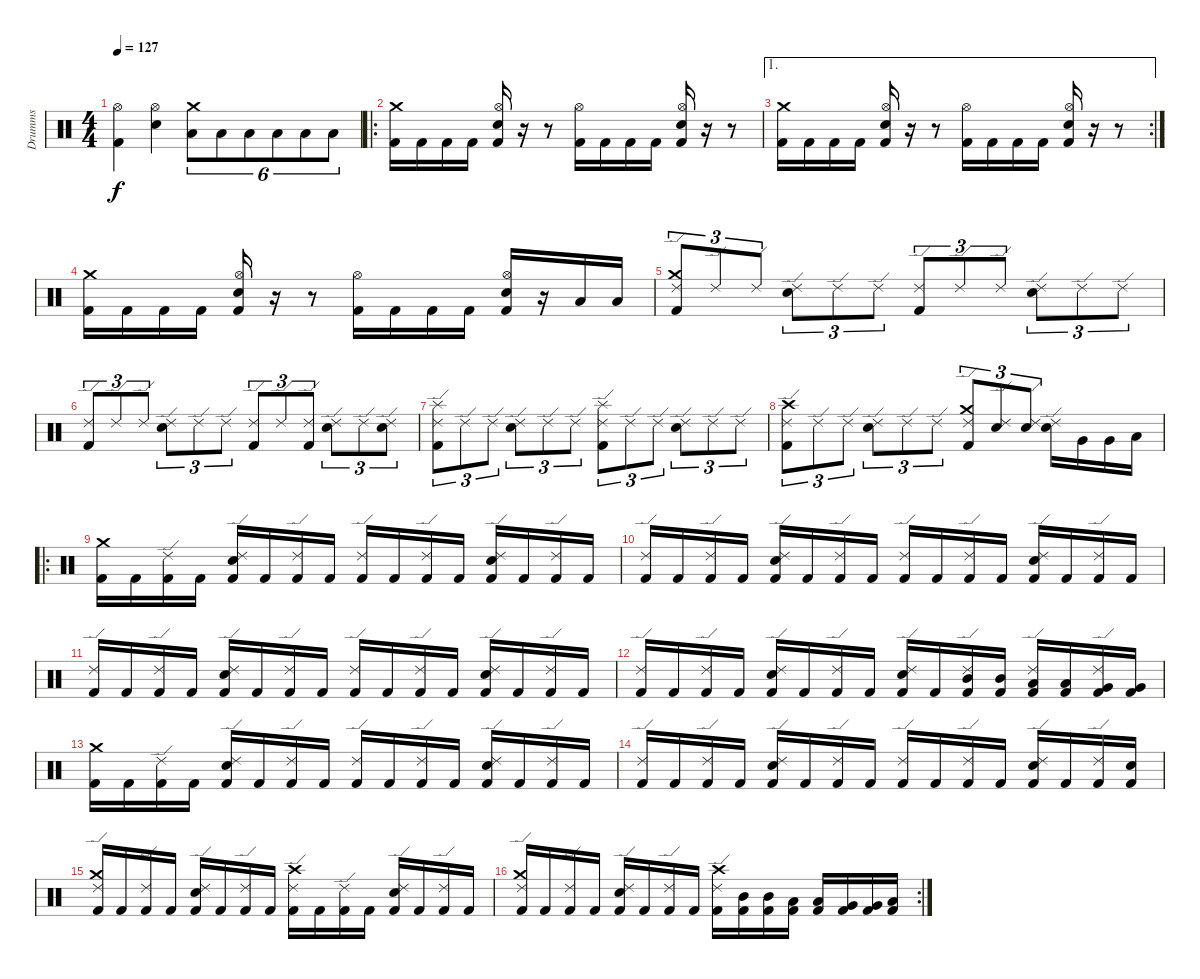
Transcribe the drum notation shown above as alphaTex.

\track ("Drumms" "Drumms") {instrument percussion}
\staff {score}
\articulation defaults
\ts (4 4)
\tempo 127
\clef neutral
\ks c
("Kick (hit) 2" "Hi-Hat (open)").4{dy f} ("Snare (hit) 2" "Hi-Hat (open)").4 ("Low Tom (hit)" "Crash medium (hit)").8{tu (6 4)} "Low Tom (hit)".8{tu (6 4)} "Low Tom (hit)".8{tu (6 4)} "Low Tom (hit)".8{tu (6 4)} "Low Tom (hit)".8{tu (6 4)} "Low Tom (hit)".8{tu (6 4)} |
\ro
("Kick (hit) 2" "Crash medium (hit)").16 "Kick (hit) 2".16 "Kick (hit) 2".16 "Kick (hit) 2".16 ("Kick (hit) 2" "Snare (hit) 2" "Hi-Hat (open)").16 r.16 r.8 ("Kick (hit) 2" "Hi-Hat (open)").16 "Kick (hit) 2".16 "Kick (hit) 2".16 "Kick (hit) 2".16 ("Kick (hit) 2" "Snare (hit) 2" "Hi-Hat (open)").16 r.16 r.8 |
\ae 1
\rc 2
("Kick (hit) 2" "Crash medium (hit)").16 "Kick (hit) 2".16 "Kick (hit) 2".16 "Kick (hit) 2".16 ("Kick (hit) 2" "Snare (hit) 2" "Hi-Hat (open)").16 r.16 r.8 ("Kick (hit) 2" "Hi-Hat (open)").16 "Kick (hit) 2".16 "Kick (hit) 2".16 "Kick (hit) 2".16 ("Kick (hit) 2" "Snare (hit) 2" "Hi-Hat (open)").16 r.16 r.8 |
("Kick (hit) 2" "Crash medium (hit)").16 "Kick (hit) 2".16 "Kick (hit) 2".16 "Kick (hit) 2".16 ("Kick (hit) 2" "Snare (hit) 2" "Hi-Hat (open)").16 r.16 r.8 ("Kick (hit) 2" "Hi-Hat (open)").16 "Kick (hit) 2".16 "Kick (hit) 2".16 "Kick (hit) 2".16 ("Kick (hit) 2" "Snare (hit) 2" "Hi-Hat (open)").16 r.16 "Low Tom (hit)".16 "Low Tom (hit)".16 |
("Kick (hit) 2" "Crash medium (hit)" "Ride (edge) 2").8{tu (3 2)} "Ride (edge) 2".8{tu (3 2)} "Ride (edge) 2".8{tu (3 2)} ("Snare (hit) 2" "Ride (edge) 2").8{tu (3 2)} "Ride (edge) 2".8{tu (3 2)} "Ride (edge) 2".8{tu (3 2)} ("Kick (hit) 2" "Ride (edge) 2").8{tu (3 2)} "Ride (edge) 2".8{tu (3 2)} "Ride (edge) 2".8{tu (3 2)} ("Snare (hit) 2" "Ride (edge) 2").8{tu (3 2)} "Ride (edge) 2".8{tu (3 2)} "Ride (edge) 2".8{tu (3 2)} |
("Kick (hit) 2" "Ride (edge) 2").8{tu (3 2)} "Ride (edge) 2".8{tu (3 2)} "Ride (edge) 2".8{tu (3 2)} ("Snare (hit) 2" "Ride (edge) 2").8{tu (3 2)} "Ride (edge) 2".8{tu (3 2)} "Ride (edge) 2".8{tu (3 2)} ("Kick (hit) 2" "Ride (edge) 2").8{tu (3 2)} "Ride (edge) 2".8{tu (3 2)} ("Kick (hit) 2" "Ride (edge) 2").8{tu (3 2)} ("Snare (hit) 2" "Ride (edge) 2").8{tu (3 2)} "Ride (edge) 2".8{tu (3 2)} ("Snare (hit) 2" "Ride (edge) 2").8{tu (3 2)} |
("Kick (hit) 2" "Splash (hit)" "Ride (edge) 2").8{tu (3 2)} "Ride (edge) 2".8{tu (3 2)} "Ride (edge) 2".8{tu (3 2)} ("Snare (hit) 2" "Ride (edge) 2").8{tu (3 2)} "Ride (edge) 2".8{tu (3 2)} "Ride (edge) 2".8{tu (3 2)} ("Kick (hit) 2" "Splash (hit)" "Ride (edge) 2").8{tu (3 2)} "Ride (edge) 2".8{tu (3 2)} "Ride (edge) 2".8{tu (3 2)} ("Snare (hit) 2" "Ride (edge) 2").8{tu (3 2)} "Ride (edge) 2".8{tu (3 2)} "Ride (edge) 2".8{tu (3 2)} |
("Kick (hit) 2" "Crash high (hit)" "Ride (edge) 2").8{tu (3 2)} "Ride (edge) 2".8{tu (3 2)} "Ride (edge) 2".8{tu (3 2)} ("Snare (hit) 2" "Ride (edge) 2").8{tu (3 2)} "Ride (edge) 2".8{tu (3 2)} "Ride (edge) 2".8{tu (3 2)} ("Kick (hit) 2" "Crash medium (hit)" "Ride (edge) 2").8{tu (3 2)} ("Snare (hit) 2" "Ride (edge) 2").8{tu (3 2)} ("Snare (hit) 2" "Ride (edge) 2").8{tu (3 2)} ("Snare (hit) 2" "Ride (edge) 2").16 "Very Low Tom (hit)".16 "Very Low Tom (hit)".16 "Low Floor Tom (hit)".16 |
\ro
("Kick (hit) 2" "Crash medium (hit)").16 "Kick (hit) 2".16 ("Kick (hit) 2" "Ride (edge) 2").16 "Kick (hit) 2".16 ("Kick (hit) 2" "Snare (hit) 2" "Ride (edge) 2").16 "Kick (hit) 2".16 ("Kick (hit) 2" "Ride (edge) 2").16 "Kick (hit) 2".16 ("Kick (hit) 2" "Ride (edge) 2").16 "Kick (hit) 2".16 ("Kick (hit) 2" "Ride (edge) 2").16 "Kick (hit) 2".16 ("Kick (hit) 2" "Snare (hit) 2" "Ride (edge) 2").16 "Kick (hit) 2".16 ("Kick (hit) 2" "Ride (edge) 2").16 "Kick (hit) 2".16 |
("Kick (hit) 2" "Ride (edge) 2").16 "Kick (hit) 2".16 ("Kick (hit) 2" "Ride (edge) 2").16 "Kick (hit) 2".16 ("Kick (hit) 2" "Snare (hit) 2" "Ride (edge) 2").16 "Kick (hit) 2".16 ("Kick (hit) 2" "Ride (edge) 2").16 "Kick (hit) 2".16 ("Kick (hit) 2" "Ride (edge) 2").16 "Kick (hit) 2".16 ("Kick (hit) 2" "Ride (edge) 2").16 "Kick (hit) 2".16 ("Kick (hit) 2" "Snare (hit) 2" "Ride (edge) 2").16 "Kick (hit) 2".16 ("Kick (hit) 2" "Ride (edge) 2").16 "Kick (hit) 2".16 |
("Kick (hit) 2" "Ride (edge) 2").16 "Kick (hit) 2".16 ("Kick (hit) 2" "Ride (edge) 2").16 "Kick (hit) 2".16 ("Kick (hit) 2" "Snare (hit) 2" "Ride (edge) 2").16 "Kick (hit) 2".16 ("Kick (hit) 2" "Ride (edge) 2").16 "Kick (hit) 2".16 ("Kick (hit) 2" "Ride (edge) 2").16 "Kick (hit) 2".16 ("Kick (hit) 2" "Ride (edge) 2").16 "Kick (hit) 2".16 ("Kick (hit) 2" "Snare (hit) 2" "Ride (edge) 2").16 "Kick (hit) 2".16 ("Kick (hit) 2" "Ride (edge) 2").16 "Kick (hit) 2".16 |
("Kick (hit) 2" "Ride (edge) 2").16 "Kick (hit) 2".16 ("Kick (hit) 2" "Ride (edge) 2").16 "Kick (hit) 2".16 ("Kick (hit) 2" "Snare (hit) 2" "Ride (edge) 2").16 "Kick (hit) 2".16 ("Kick (hit) 2" "Ride (edge) 2").16 "Kick (hit) 2".16 ("Kick (hit) 2" "Snare (hit) 2" "Ride (edge) 2").16 "Kick (hit) 2".16 ("Kick (hit) 2" "Mid Tom (hit)" "Ride (edge) 2").16 ("Kick (hit) 2" "Mid Tom (hit)").16 ("Kick (hit) 2" "Low Tom (hit)" "Ride (edge) 2").16 ("Kick (hit) 2" "Low Tom (hit)").16 ("Kick (hit) 2" "Very Low Tom (hit)" "Ride (edge) 2").16 ("Kick (hit) 2" "Very Low Tom (hit)").16 |
("Kick (hit) 2" "Crash medium (hit)").16 "Kick (hit) 2".16 ("Kick (hit) 2" "Ride (edge) 2").16 "Kick (hit) 2".16 ("Kick (hit) 2" "Snare (hit) 2" "Ride (edge) 2").16 "Kick (hit) 2".16 ("Kick (hit) 2" "Ride (edge) 2").16 "Kick (hit) 2".16 ("Kick (hit) 2" "Ride (edge) 2").16 "Kick (hit) 2".16 ("Kick (hit) 2" "Ride (edge) 2").16 "Kick (hit) 2".16 ("Kick (hit) 2" "Snare (hit) 2" "Ride (edge) 2").16 "Kick (hit) 2".16 ("Kick (hit) 2" "Ride (edge) 2").16 "Kick (hit) 2".16 |
("Kick (hit) 2" "Ride (edge) 2").16 "Kick (hit) 2".16 ("Kick (hit) 2" "Ride (edge) 2").16 "Kick (hit) 2".16 ("Kick (hit) 2" "Snare (hit) 2" "Ride (edge) 2").16 "Kick (hit) 2".16 ("Kick (hit) 2" "Ride (edge) 2").16 "Kick (hit) 2".16 ("Kick (hit) 2" "Ride (edge) 2").16 "Kick (hit) 2".16 ("Kick (hit) 2" "Ride (edge) 2").16 "Kick (hit) 2".16 ("Kick (hit) 2" "Snare (hit) 2" "Ride (edge) 2").16 "Kick (hit) 2".16 ("Kick (hit) 2" "Ride (edge) 2").16 ("Kick (hit) 2" "Snare (hit) 2").16 |
("Kick (hit) 2" "Crash medium (hit)" "Ride (edge) 2").16 "Kick (hit) 2".16 ("Kick (hit) 2" "Ride (edge) 2").16 "Kick (hit) 2".16 ("Kick (hit) 2" "Snare (hit) 2" "Ride (edge) 2").16 "Kick (hit) 2".16 ("Kick (hit) 2" "Ride (edge) 2").16 "Kick (hit) 2".16 ("Kick (hit) 2" "Crash high (hit)" "Ride (edge) 2").16 "Kick (hit) 2".16 ("Kick (hit) 2" "Ride (edge) 2").16 "Kick (hit) 2".16 ("Kick (hit) 2" "Snare (hit) 2" "Ride (edge) 2").16 "Kick (hit) 2".16 ("Kick (hit) 2" "Ride (edge) 2").16 "Kick (hit) 2".16 |
\rc 2
("Kick (hit) 2" "Crash medium (hit)" "Ride (edge) 2").16 "Kick (hit) 2".16 ("Kick (hit) 2" "Ride (edge) 2").16 "Kick (hit) 2".16 ("Kick (hit) 2" "Snare (hit) 2" "Ride (edge) 2").16 "Kick (hit) 2".16 ("Kick (hit) 2" "Ride (edge) 2").16 "Kick (hit) 2".16 ("Kick (hit) 2" "Crash high (hit)" "Ride (edge) 2").16 ("Kick (hit) 2" "Mid Tom (hit)").16 ("Kick (hit) 2" "Mid Tom (hit)").16 ("Kick (hit) 2" "Low Tom (hit)").16 ("Kick (hit) 2" "Low Tom (hit)").16 ("Kick (hit) 2" "Very Low Tom (hit)").16 ("Kick (hit) 2" "Very Low Tom (hit)").16 ("Kick (hit) 2" "Low Floor Tom (hit)").16
